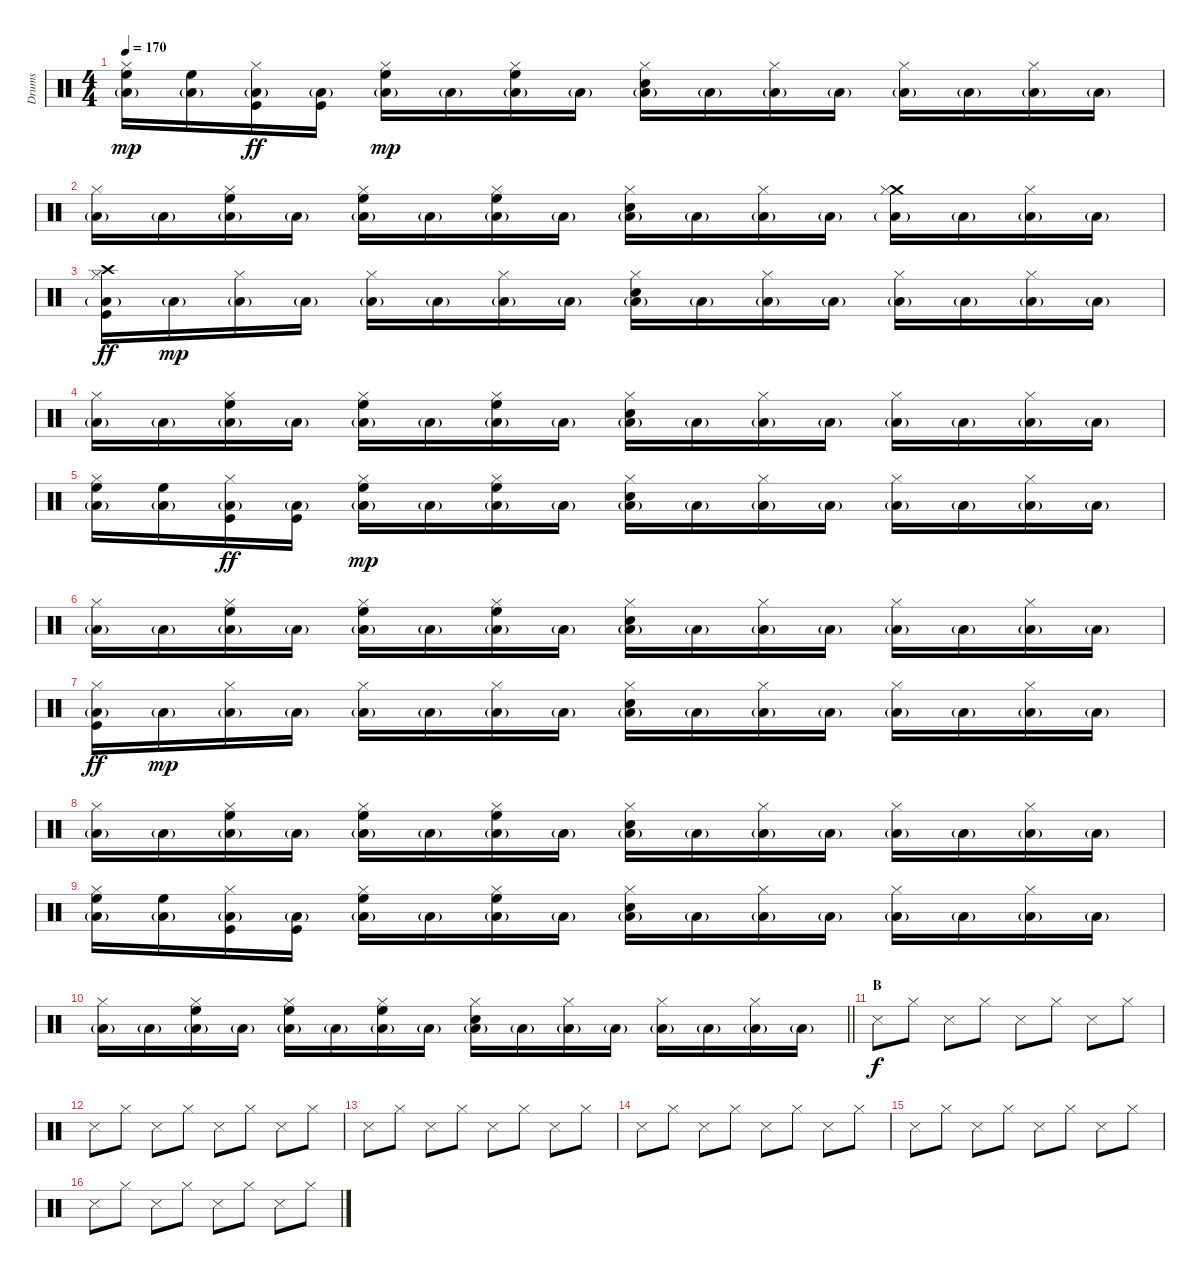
\track ("Drums" "Drums") {instrument percussion}
\staff {score}
\articulation defaults
\ts (4 4)
\tempo 170
\clef neutral
\ks c
("Hi-Hat (closed)" "High Floor Tom (hit)" "Low Tom (hit)"{g}).16{dy mp} ("High Floor Tom (hit)" "Low Tom (hit)"{g}).16 ("Hi-Hat (closed)" "Low Tom (hit)"{g} "Kick (hit)").16{dy ff} ("Low Tom (hit)"{g} "Kick (hit)").16 ("Hi-Hat (closed)" "High Floor Tom (hit)" "Low Tom (hit)"{g}).16{dy mp} "Low Tom (hit)"{g}.16 ("Hi-Hat (closed)" "High Floor Tom (hit)" "Low Tom (hit)"{g}).16 "Low Tom (hit)"{g}.16 ("Hi-Hat (closed)" "Snare (hit) 2" "Low Tom (hit)"{g}).16 "Low Tom (hit)"{g}.16 ("Hi-Hat (closed)" "Low Tom (hit)"{g}).16 "Low Tom (hit)"{g}.16 ("Hi-Hat (closed)" "Low Tom (hit)"{g}).16 "Low Tom (hit)"{g}.16 ("Hi-Hat (closed)" "Low Tom (hit)"{g}).16 "Low Tom (hit)"{g}.16 |
("Hi-Hat (closed)" "Low Tom (hit)"{g}).16 "Low Tom (hit)"{g}.16 ("Hi-Hat (closed)" "High Floor Tom (hit)" "Low Tom (hit)"{g}).16 "Low Tom (hit)"{g}.16 ("Hi-Hat (closed)" "High Floor Tom (hit)" "Low Tom (hit)"{g}).16 "Low Tom (hit)"{g}.16 ("Hi-Hat (closed)" "High Floor Tom (hit)" "Low Tom (hit)"{g}).16 "Low Tom (hit)"{g}.16 ("Hi-Hat (closed)" "Snare (hit) 2" "Low Tom (hit)"{g}).16 "Low Tom (hit)"{g}.16 ("Hi-Hat (closed)" "Low Tom (hit)"{g}).16 "Low Tom (hit)"{g}.16 ("Crash medium (hit)" "Hi-Hat (closed)" "Low Tom (hit)"{g}).16 "Low Tom (hit)"{g}.16 ("Hi-Hat (closed)" "Low Tom (hit)"{g}).16 "Low Tom (hit)"{g}.16 |
("Crash high (hit)" "Hi-Hat (closed)" "Low Tom (hit)"{g} "Kick (hit)").16{dy ff} "Low Tom (hit)"{g}.16{dy mp} ("Hi-Hat (closed)" "Low Tom (hit)"{g}).16 "Low Tom (hit)"{g}.16 ("Hi-Hat (closed)" "Low Tom (hit)"{g}).16 "Low Tom (hit)"{g}.16 ("Hi-Hat (closed)" "Low Tom (hit)"{g}).16 "Low Tom (hit)"{g}.16 ("Hi-Hat (closed)" "Snare (hit) 2" "Low Tom (hit)"{g}).16 "Low Tom (hit)"{g}.16 ("Hi-Hat (closed)" "Low Tom (hit)"{g}).16 "Low Tom (hit)"{g}.16 ("Hi-Hat (closed)" "Low Tom (hit)"{g}).16 "Low Tom (hit)"{g}.16 ("Hi-Hat (closed)" "Low Tom (hit)"{g}).16 "Low Tom (hit)"{g}.16 |
("Hi-Hat (closed)" "Low Tom (hit)"{g}).16 "Low Tom (hit)"{g}.16 ("Hi-Hat (closed)" "High Floor Tom (hit)" "Low Tom (hit)"{g}).16 "Low Tom (hit)"{g}.16 ("Hi-Hat (closed)" "High Floor Tom (hit)" "Low Tom (hit)"{g}).16 "Low Tom (hit)"{g}.16 ("Hi-Hat (closed)" "High Floor Tom (hit)" "Low Tom (hit)"{g}).16 "Low Tom (hit)"{g}.16 ("Hi-Hat (closed)" "Snare (hit) 2" "Low Tom (hit)"{g}).16 "Low Tom (hit)"{g}.16 ("Hi-Hat (closed)" "Low Tom (hit)"{g}).16 "Low Tom (hit)"{g}.16 ("Hi-Hat (closed)" "Low Tom (hit)"{g}).16 "Low Tom (hit)"{g}.16 ("Hi-Hat (closed)" "Low Tom (hit)"{g}).16 "Low Tom (hit)"{g}.16 |
("Hi-Hat (closed)" "High Floor Tom (hit)" "Low Tom (hit)"{g}).16 ("High Floor Tom (hit)" "Low Tom (hit)"{g}).16 ("Hi-Hat (closed)" "Low Tom (hit)"{g} "Kick (hit)").16{dy ff} ("Low Tom (hit)"{g} "Kick (hit)").16 ("Hi-Hat (closed)" "High Floor Tom (hit)" "Low Tom (hit)"{g}).16{dy mp} "Low Tom (hit)"{g}.16 ("Hi-Hat (closed)" "High Floor Tom (hit)" "Low Tom (hit)"{g}).16 "Low Tom (hit)"{g}.16 ("Hi-Hat (closed)" "Snare (hit) 2" "Low Tom (hit)"{g}).16 "Low Tom (hit)"{g}.16 ("Hi-Hat (closed)" "Low Tom (hit)"{g}).16 "Low Tom (hit)"{g}.16 ("Hi-Hat (closed)" "Low Tom (hit)"{g}).16 "Low Tom (hit)"{g}.16 ("Hi-Hat (closed)" "Low Tom (hit)"{g}).16 "Low Tom (hit)"{g}.16 |
("Hi-Hat (closed)" "Low Tom (hit)"{g}).16 "Low Tom (hit)"{g}.16 ("Hi-Hat (closed)" "High Floor Tom (hit)" "Low Tom (hit)"{g}).16 "Low Tom (hit)"{g}.16 ("Hi-Hat (closed)" "High Floor Tom (hit)" "Low Tom (hit)"{g}).16 "Low Tom (hit)"{g}.16 ("Hi-Hat (closed)" "High Floor Tom (hit)" "Low Tom (hit)"{g}).16 "Low Tom (hit)"{g}.16 ("Hi-Hat (closed)" "Snare (hit) 2" "Low Tom (hit)"{g}).16 "Low Tom (hit)"{g}.16 ("Hi-Hat (closed)" "Low Tom (hit)"{g}).16 "Low Tom (hit)"{g}.16 ("Hi-Hat (closed)" "Low Tom (hit)"{g}).16 "Low Tom (hit)"{g}.16 ("Hi-Hat (closed)" "Low Tom (hit)"{g}).16 "Low Tom (hit)"{g}.16 |
("Hi-Hat (closed)" "Low Tom (hit)"{g} "Kick (hit)").16{dy ff} "Low Tom (hit)"{g}.16{dy mp} ("Hi-Hat (closed)" "Low Tom (hit)"{g}).16 "Low Tom (hit)"{g}.16 ("Hi-Hat (closed)" "Low Tom (hit)"{g}).16 "Low Tom (hit)"{g}.16 ("Hi-Hat (closed)" "Low Tom (hit)"{g}).16 "Low Tom (hit)"{g}.16 ("Hi-Hat (closed)" "Snare (hit) 2" "Low Tom (hit)"{g}).16 "Low Tom (hit)"{g}.16 ("Hi-Hat (closed)" "Low Tom (hit)"{g}).16 "Low Tom (hit)"{g}.16 ("Hi-Hat (closed)" "Low Tom (hit)"{g}).16 "Low Tom (hit)"{g}.16 ("Hi-Hat (closed)" "Low Tom (hit)"{g}).16 "Low Tom (hit)"{g}.16 |
("Hi-Hat (closed)" "Low Tom (hit)"{g}).16 "Low Tom (hit)"{g}.16 ("Hi-Hat (closed)" "High Floor Tom (hit)" "Low Tom (hit)"{g}).16 "Low Tom (hit)"{g}.16 ("Hi-Hat (closed)" "High Floor Tom (hit)" "Low Tom (hit)"{g}).16 "Low Tom (hit)"{g}.16 ("Hi-Hat (closed)" "High Floor Tom (hit)" "Low Tom (hit)"{g}).16 "Low Tom (hit)"{g}.16 ("Hi-Hat (closed)" "Snare (hit) 2" "Low Tom (hit)"{g}).16 "Low Tom (hit)"{g}.16 ("Hi-Hat (closed)" "Low Tom (hit)"{g}).16 "Low Tom (hit)"{g}.16 ("Hi-Hat (closed)" "Low Tom (hit)"{g}).16 "Low Tom (hit)"{g}.16 ("Hi-Hat (closed)" "Low Tom (hit)"{g}).16 "Low Tom (hit)"{g}.16 |
("Hi-Hat (closed)" "High Floor Tom (hit)" "Low Tom (hit)"{g}).16 ("High Floor Tom (hit)" "Low Tom (hit)"{g}).16 ("Hi-Hat (closed)" "Low Tom (hit)"{g} "Kick (hit)").16 ("Low Tom (hit)"{g} "Kick (hit)").16 ("Hi-Hat (closed)" "High Floor Tom (hit)" "Low Tom (hit)"{g}).16 "Low Tom (hit)"{g}.16 ("Hi-Hat (closed)" "High Floor Tom (hit)" "Low Tom (hit)"{g}).16 "Low Tom (hit)"{g}.16 ("Hi-Hat (closed)" "Snare (hit) 2" "Low Tom (hit)"{g}).16 "Low Tom (hit)"{g}.16 ("Hi-Hat (closed)" "Low Tom (hit)"{g}).16 "Low Tom (hit)"{g}.16 ("Hi-Hat (closed)" "Low Tom (hit)"{g}).16 "Low Tom (hit)"{g}.16 ("Hi-Hat (closed)" "Low Tom (hit)"{g}).16 "Low Tom (hit)"{g}.16 |
\barLineRight lightlight
("Hi-Hat (closed)" "Low Tom (hit)"{g}).16 "Low Tom (hit)"{g}.16 ("Hi-Hat (closed)" "High Floor Tom (hit)" "Low Tom (hit)"{g}).16 "Low Tom (hit)"{g}.16 ("Hi-Hat (closed)" "High Floor Tom (hit)" "Low Tom (hit)"{g}).16 "Low Tom (hit)"{g}.16 ("Hi-Hat (closed)" "High Floor Tom (hit)" "Low Tom (hit)"{g}).16 "Low Tom (hit)"{g}.16 ("Hi-Hat (closed)" "Snare (hit) 2" "Low Tom (hit)"{g}).16 "Low Tom (hit)"{g}.16 ("Hi-Hat (closed)" "Low Tom (hit)"{g}).16 "Low Tom (hit)"{g}.16 ("Hi-Hat (closed)" "Low Tom (hit)"{g}).16 "Low Tom (hit)"{g}.16 ("Hi-Hat (closed)" "Low Tom (hit)"{g}).16 "Low Tom (hit)"{g}.16 |
\section ("" "B")
"Snare (side stick) 3".8{dy f} "Hi-Hat (closed)".8 "Snare (side stick) 3".8 "Hi-Hat (closed)".8 "Snare (side stick) 3".8 "Hi-Hat (closed)".8 "Snare (side stick) 3".8 "Hi-Hat (closed)".8 |
"Snare (side stick) 3".8 "Hi-Hat (closed)".8 "Snare (side stick) 3".8 "Hi-Hat (closed)".8 "Snare (side stick) 3".8 "Hi-Hat (closed)".8 "Snare (side stick) 3".8 "Hi-Hat (closed)".8 |
"Snare (side stick) 3".8 "Hi-Hat (closed)".8 "Snare (side stick) 3".8 "Hi-Hat (closed)".8 "Snare (side stick) 3".8 "Hi-Hat (closed)".8 "Snare (side stick) 3".8 "Hi-Hat (closed)".8 |
"Snare (side stick) 3".8 "Hi-Hat (closed)".8 "Snare (side stick) 3".8 "Hi-Hat (closed)".8 "Snare (side stick) 3".8 "Hi-Hat (closed)".8 "Snare (side stick) 3".8 "Hi-Hat (closed)".8 |
"Snare (side stick) 3".8 "Hi-Hat (closed)".8 "Snare (side stick) 3".8 "Hi-Hat (closed)".8 "Snare (side stick) 3".8 "Hi-Hat (closed)".8 "Snare (side stick) 3".8 "Hi-Hat (closed)".8 |
"Snare (side stick) 3".8 "Hi-Hat (closed)".8 "Snare (side stick) 3".8 "Hi-Hat (closed)".8 "Snare (side stick) 3".8 "Hi-Hat (closed)".8 "Snare (side stick) 3".8 "Hi-Hat (closed)".8
